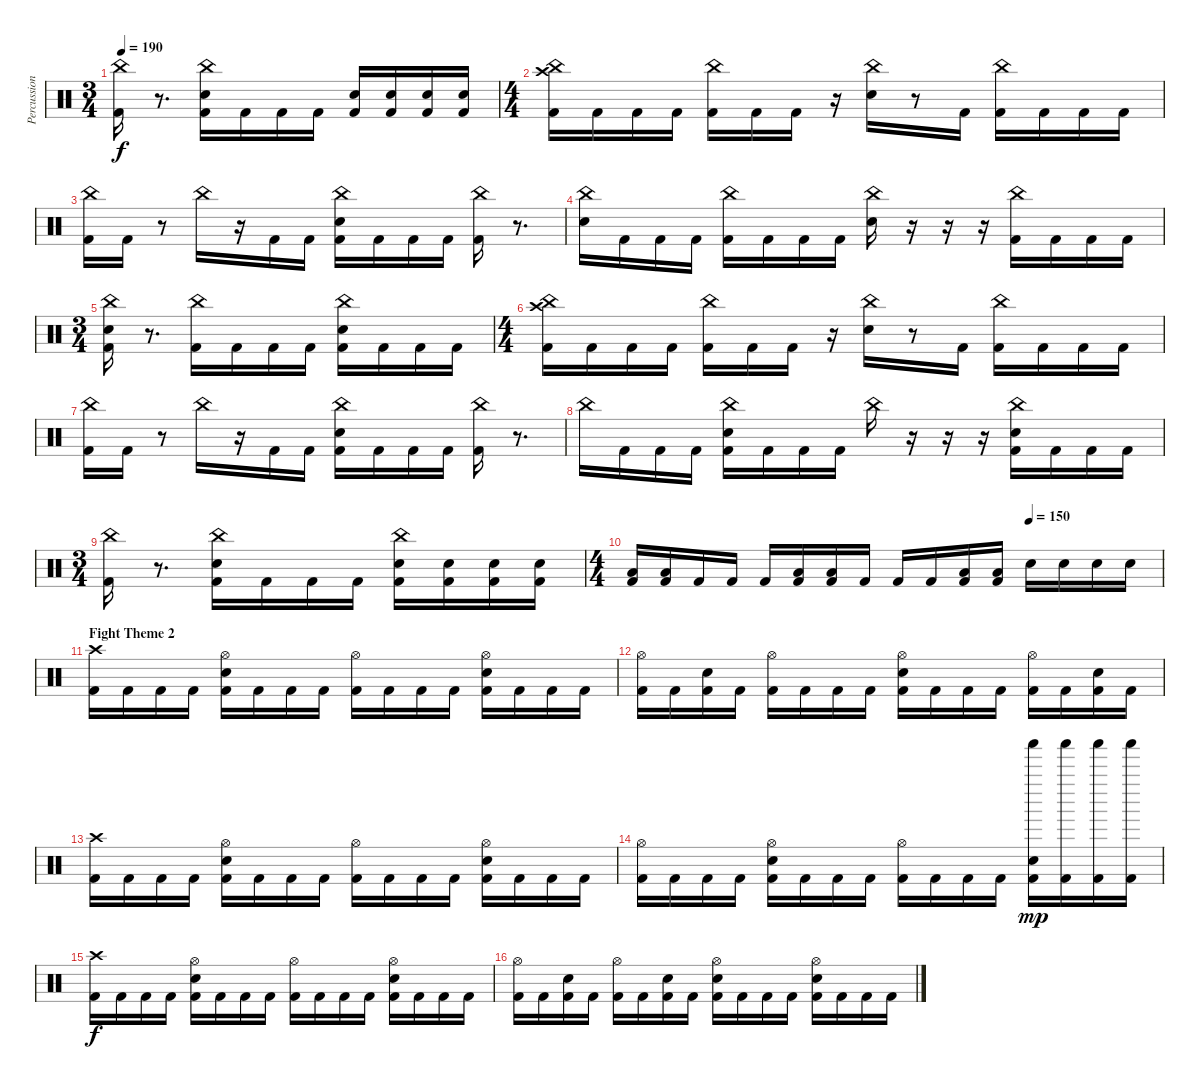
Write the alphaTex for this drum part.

\track ("Percussion" "Percussion") {instrument percussion}
\staff {score}
\articulation defaults
\ts (3 4)
\tempo 190
\clef neutral
\ks c
("China (hit)" "Kick (hit) 2").16{dy f} r.8{d} ("China (hit)" "Electric Snare (hit)" "Kick (hit) 2").16 "Kick (hit) 2".16 "Kick (hit) 2".16 "Kick (hit) 2".16 ("Electric Snare (hit)" "Kick (hit) 2").16 ("Electric Snare (hit)" "Kick (hit) 2").16 ("Electric Snare (hit)" "Kick (hit) 2").16 ("Electric Snare (hit)" "Kick (hit) 2").16 |
\ts (4 4)
("China (hit)" "Crash high (hit)" "Kick (hit) 2").16 "Kick (hit) 2".16 "Kick (hit) 2".16 "Kick (hit) 2".16 ("China (hit)" "Kick (hit) 2").16 "Kick (hit) 2".16 "Kick (hit) 2".16 r.16 ("China (hit)" "Electric Snare (hit)").16 r.8 "Kick (hit) 2".16 ("China (hit)" "Kick (hit) 2").16 "Kick (hit) 2".16 "Kick (hit) 2".16 "Kick (hit) 2".16 |
("China (hit)" "Kick (hit) 2").16 "Kick (hit) 2".16 r.8 "China (hit)".16 r.16 "Kick (hit) 2".16 "Kick (hit) 2".16 ("China (hit)" "Electric Snare (hit)" "Kick (hit) 2").16 "Kick (hit) 2".16 "Kick (hit) 2".16 "Kick (hit) 2".16 ("China (hit)" "Kick (hit) 2").16 r.8{d} |
("China (hit)" "Electric Snare (hit)").16 "Kick (hit) 2".16 "Kick (hit) 2".16 "Kick (hit) 2".16 ("China (hit)" "Kick (hit) 2").16 "Kick (hit) 2".16 "Kick (hit) 2".16 "Kick (hit) 2".16 ("China (hit)" "Electric Snare (hit)").16 r.16 r.16 r.16 ("China (hit)" "Kick (hit) 2").16 "Kick (hit) 2".16 "Kick (hit) 2".16 "Kick (hit) 2".16 |
\ts (3 4)
("China (hit)" "Electric Snare (hit)" "Kick (hit) 2").16 r.8{d} ("China (hit)" "Kick (hit) 2").16 "Kick (hit) 2".16 "Kick (hit) 2".16 "Kick (hit) 2".16 ("China (hit)" "Electric Snare (hit)" "Kick (hit) 2").16 "Kick (hit) 2".16 "Kick (hit) 2".16 "Kick (hit) 2".16 |
\ts (4 4)
("China (hit)" "Crash high (hit)" "Kick (hit) 2").16 "Kick (hit) 2".16 "Kick (hit) 2".16 "Kick (hit) 2".16 ("China (hit)" "Kick (hit) 2").16 "Kick (hit) 2".16 "Kick (hit) 2".16 r.16 ("China (hit)" "Electric Snare (hit)").16 r.8 "Kick (hit) 2".16 ("China (hit)" "Kick (hit) 2").16 "Kick (hit) 2".16 "Kick (hit) 2".16 "Kick (hit) 2".16 |
("China (hit)" "Kick (hit) 2").16 "Kick (hit) 2".16 r.8 "China (hit)".16 r.16 "Kick (hit) 2".16 "Kick (hit) 2".16 ("China (hit)" "Electric Snare (hit)" "Kick (hit) 2").16 "Kick (hit) 2".16 "Kick (hit) 2".16 "Kick (hit) 2".16 ("China (hit)" "Kick (hit) 2").16 r.8{d} |
"China (hit)".16 "Kick (hit) 2".16 "Kick (hit) 2".16 "Kick (hit) 2".16 ("China (hit)" "Electric Snare (hit)" "Kick (hit) 2").16 "Kick (hit) 2".16 "Kick (hit) 2".16 "Kick (hit) 2".16 "China (hit)".16 r.16 r.16 r.16 ("China (hit)" "Electric Snare (hit)" "Kick (hit) 2").16 "Kick (hit) 2".16 "Kick (hit) 2".16 "Kick (hit) 2".16 |
\ts (3 4)
("China (hit)" "Kick (hit) 2").16 r.8{d} ("China (hit)" "Electric Snare (hit)" "Kick (hit) 2").16 "Kick (hit) 2".16 "Kick (hit) 2".16 "Kick (hit) 2".16 ("China (hit)" "Electric Snare (hit)" "Kick (hit) 2").16 ("Electric Snare (hit)" "Kick (hit) 2").16 ("Electric Snare (hit)" "Kick (hit) 2").16 ("Electric Snare (hit)" "Kick (hit) 2").16 |
\ts (4 4)
\tempo (150 0.75)
("Low Tom (hit)" "Kick (hit) 2").16 ("Low Floor Tom (hit)" "Kick (hit) 2").16 "Kick (hit) 2".16 "Kick (hit) 2".16 "Kick (hit) 2".16 ("Low Tom (hit)" "Kick (hit) 2").16 ("Low Floor Tom (hit)" "Kick (hit) 2").16 "Kick (hit) 2".16 "Kick (hit) 2".16 "Kick (hit) 2".16 ("Low Tom (hit)" "Kick (hit) 2").16 ("Low Floor Tom (hit)" "Kick (hit) 2").16 "Electric Snare (hit)".16 "Electric Snare (hit)".16 "Electric Snare (hit)".16 "Electric Snare (hit)".16 |
\section ("" "Fight Theme 2")
("Crash high (hit)" "Kick (hit) 2").16 "Kick (hit) 2".16 "Kick (hit) 2".16 "Kick (hit) 2".16 ("Hi-Hat (open)" "Electric Snare (hit)" "Kick (hit) 2").16 "Kick (hit) 2".16 "Kick (hit) 2".16 "Kick (hit) 2".16 ("Hi-Hat (open)" "Kick (hit) 2").16 "Kick (hit) 2".16 "Kick (hit) 2".16 "Kick (hit) 2".16 ("Hi-Hat (open)" "Electric Snare (hit)" "Kick (hit) 2").16 "Kick (hit) 2".16 "Kick (hit) 2".16 "Kick (hit) 2".16 |
("Hi-Hat (open)" "Kick (hit) 2").16 "Kick (hit) 2".16 ("Electric Snare (hit)" "Kick (hit) 2").16 "Kick (hit) 2".16 ("Hi-Hat (open)" "Kick (hit) 2").16 "Kick (hit) 2".16 "Kick (hit) 2".16 "Kick (hit) 2".16 ("Hi-Hat (open)" "Electric Snare (hit)" "Kick (hit) 2").16 "Kick (hit) 2".16 "Kick (hit) 2".16 "Kick (hit) 2".16 ("Hi-Hat (open)" "Kick (hit) 2").16 "Kick (hit) 2".16 ("Electric Snare (hit)" "Kick (hit) 2").16 "Kick (hit) 2".16 |
("Crash high (hit)" "Kick (hit) 2").16 "Kick (hit) 2".16 "Kick (hit) 2".16 "Kick (hit) 2".16 ("Hi-Hat (open)" "Electric Snare (hit)" "Kick (hit) 2").16 "Kick (hit) 2".16 "Kick (hit) 2".16 "Kick (hit) 2".16 ("Hi-Hat (open)" "Kick (hit) 2").16 "Kick (hit) 2".16 "Kick (hit) 2".16 "Kick (hit) 2".16 ("Hi-Hat (open)" "Electric Snare (hit)" "Kick (hit) 2").16 "Kick (hit) 2".16 "Kick (hit) 2".16 "Kick (hit) 2".16 |
("Hi-Hat (open)" "Kick (hit) 2").16 "Kick (hit) 2".16 "Kick (hit) 2".16 "Kick (hit) 2".16 ("Hi-Hat (open)" "Electric Snare (hit)" "Kick (hit) 2").16 "Kick (hit) 2".16 "Kick (hit) 2".16 "Kick (hit) 2".16 ("Hi-Hat (open)" "Kick (hit) 2").16 "Kick (hit) 2".16 "Kick (hit) 2".16 "Kick (hit) 2".16 ("Shaker (hit)" "Electric Snare (hit)" "Kick (hit) 2").16{dy mp} ("Shaker (hit)" "Kick (hit) 2").16 ("Shaker (hit)" "Kick (hit) 2").16 ("Shaker (hit)" "Kick (hit) 2").16 |
("Crash high (hit)" "Kick (hit) 2").16{dy f} "Kick (hit) 2".16 "Kick (hit) 2".16 "Kick (hit) 2".16 ("Hi-Hat (open)" "Electric Snare (hit)" "Kick (hit) 2").16 "Kick (hit) 2".16 "Kick (hit) 2".16 "Kick (hit) 2".16 ("Hi-Hat (open)" "Kick (hit) 2").16 "Kick (hit) 2".16 "Kick (hit) 2".16 "Kick (hit) 2".16 ("Hi-Hat (open)" "Electric Snare (hit)" "Kick (hit) 2").16 "Kick (hit) 2".16 "Kick (hit) 2".16 "Kick (hit) 2".16 |
("Hi-Hat (open)" "Kick (hit) 2").16 "Kick (hit) 2".16 ("Electric Snare (hit)" "Kick (hit) 2").16 "Kick (hit) 2".16 ("Hi-Hat (open)" "Kick (hit) 2").16 "Kick (hit) 2".16 ("Electric Snare (hit)" "Kick (hit) 2").16 "Kick (hit) 2".16 ("Hi-Hat (open)" "Electric Snare (hit)" "Kick (hit) 2").16 "Kick (hit) 2".16 "Kick (hit) 2".16 "Kick (hit) 2".16 ("Hi-Hat (open)" "Electric Snare (hit)" "Kick (hit) 2").16 "Kick (hit) 2".16 "Kick (hit) 2".16 "Kick (hit) 2".16
